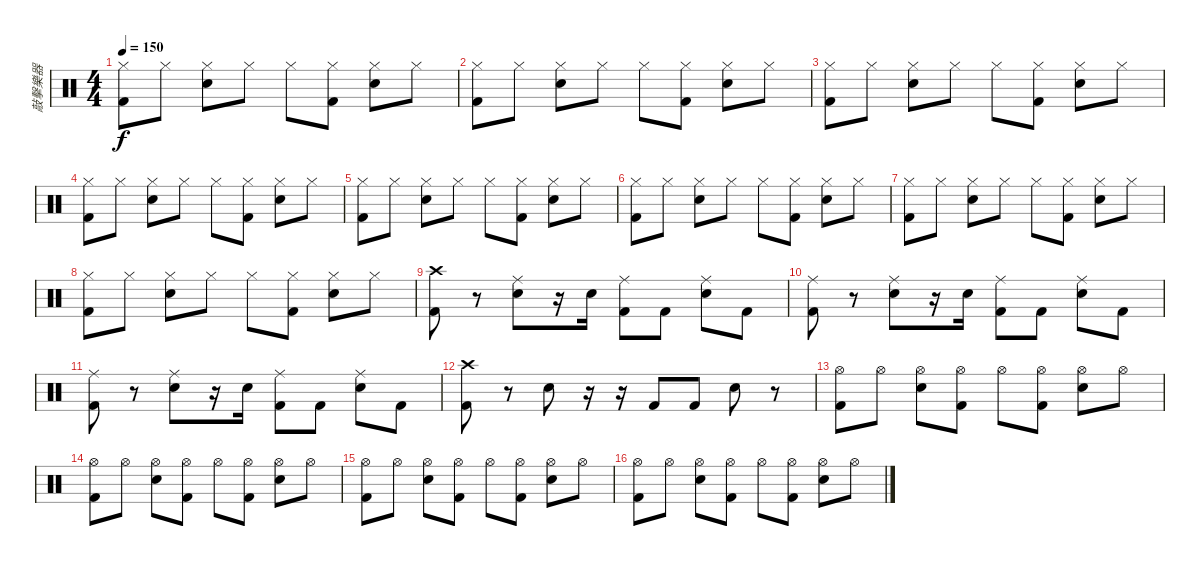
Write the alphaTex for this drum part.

\track ("敲擊樂器" "敲擊樂器") {instrument percussion}
\staff {score}
\articulation defaults
\ts (4 4)
\tempo 150
\clef neutral
\ks c
("Hi-Hat (closed)" "Kick (hit) 2").8{dy f} "Hi-Hat (closed)".8 ("Hi-Hat (closed)" "Electric Snare (hit)").8 "Hi-Hat (closed)".8 "Hi-Hat (closed)".8 ("Hi-Hat (closed)" "Kick (hit) 2").8 ("Hi-Hat (closed)" "Electric Snare (hit)").8 "Hi-Hat (closed)".8 |
("Hi-Hat (closed)" "Kick (hit) 2").8 "Hi-Hat (closed)".8 ("Hi-Hat (closed)" "Electric Snare (hit)").8 "Hi-Hat (closed)".8 "Hi-Hat (closed)".8 ("Hi-Hat (closed)" "Kick (hit) 2").8 ("Hi-Hat (closed)" "Electric Snare (hit)").8 "Hi-Hat (closed)".8 |
("Hi-Hat (closed)" "Kick (hit) 2").8 "Hi-Hat (closed)".8 ("Hi-Hat (closed)" "Electric Snare (hit)").8 "Hi-Hat (closed)".8 "Hi-Hat (closed)".8 ("Hi-Hat (closed)" "Kick (hit) 2").8 ("Hi-Hat (closed)" "Electric Snare (hit)").8 "Hi-Hat (closed)".8 |
("Hi-Hat (closed)" "Kick (hit) 2").8 "Hi-Hat (closed)".8 ("Hi-Hat (closed)" "Electric Snare (hit)").8 "Hi-Hat (closed)".8 "Hi-Hat (closed)".8 ("Hi-Hat (closed)" "Kick (hit) 2").8 ("Hi-Hat (closed)" "Electric Snare (hit)").8 "Hi-Hat (closed)".8 |
("Hi-Hat (closed)" "Kick (hit) 2").8 "Hi-Hat (closed)".8 ("Hi-Hat (closed)" "Electric Snare (hit)").8 "Hi-Hat (closed)".8 "Hi-Hat (closed)".8 ("Hi-Hat (closed)" "Kick (hit) 2").8 ("Hi-Hat (closed)" "Electric Snare (hit)").8 "Hi-Hat (closed)".8 |
("Hi-Hat (closed)" "Kick (hit) 2").8 "Hi-Hat (closed)".8 ("Hi-Hat (closed)" "Electric Snare (hit)").8 "Hi-Hat (closed)".8 "Hi-Hat (closed)".8 ("Hi-Hat (closed)" "Kick (hit) 2").8 ("Hi-Hat (closed)" "Electric Snare (hit)").8 "Hi-Hat (closed)".8 |
("Hi-Hat (closed)" "Kick (hit) 2").8 "Hi-Hat (closed)".8 ("Hi-Hat (closed)" "Electric Snare (hit)").8 "Hi-Hat (closed)".8 "Hi-Hat (closed)".8 ("Hi-Hat (closed)" "Kick (hit) 2").8 ("Hi-Hat (closed)" "Electric Snare (hit)").8 "Hi-Hat (closed)".8 |
("Hi-Hat (closed)" "Kick (hit) 2").8 "Hi-Hat (closed)".8 ("Hi-Hat (closed)" "Electric Snare (hit)").8 "Hi-Hat (closed)".8 "Hi-Hat (closed)".8 ("Hi-Hat (closed)" "Kick (hit) 2").8 ("Hi-Hat (closed)" "Electric Snare (hit)").8 "Hi-Hat (closed)".8 |
("Crash high (hit)" "Kick (hit) 2").8 r.8 ("Ride (middle)" "Electric Snare (hit)").8 r.16 "Electric Snare (hit)".16 ("Ride (middle)" "Kick (hit) 2").8 "Kick (hit) 2".8 ("Ride (middle)" "Electric Snare (hit)").8 "Kick (hit) 2".8 |
("Ride (middle)" "Kick (hit) 2").8 r.8 ("Ride (middle)" "Electric Snare (hit)").8 r.16 "Electric Snare (hit)".16 ("Ride (middle)" "Kick (hit) 2").8 "Kick (hit) 2".8 ("Ride (middle)" "Electric Snare (hit)").8 "Kick (hit) 2".8 |
("Ride (middle)" "Kick (hit) 2").8 r.8 ("Ride (middle)" "Electric Snare (hit)").8 r.16 "Electric Snare (hit)".16 ("Ride (middle)" "Kick (hit) 2").8 "Kick (hit) 2".8 ("Ride (middle)" "Electric Snare (hit)").8 "Kick (hit) 2".8 |
("Crash high (hit)" "Kick (hit) 2").8 r.8 "Electric Snare (hit)".8 r.16 r.16 "Kick (hit) 2".8 "Kick (hit) 2".8 "Electric Snare (hit)".8 r.8 |
("Hi-Hat (open)" "Kick (hit) 2").8 "Hi-Hat (open)".8 ("Hi-Hat (open)" "Electric Snare (hit)").8 ("Hi-Hat (open)" "Kick (hit) 2").8 "Hi-Hat (open)".8 ("Hi-Hat (open)" "Kick (hit) 2").8 ("Hi-Hat (open)" "Electric Snare (hit)").8 "Hi-Hat (open)".8 |
("Hi-Hat (open)" "Kick (hit) 2").8 "Hi-Hat (open)".8 ("Hi-Hat (open)" "Electric Snare (hit)").8 ("Hi-Hat (open)" "Kick (hit) 2").8 "Hi-Hat (open)".8 ("Hi-Hat (open)" "Kick (hit) 2").8 ("Hi-Hat (open)" "Electric Snare (hit)").8 "Hi-Hat (open)".8 |
("Hi-Hat (open)" "Kick (hit) 2").8 "Hi-Hat (open)".8 ("Hi-Hat (open)" "Electric Snare (hit)").8 ("Hi-Hat (open)" "Kick (hit) 2").8 "Hi-Hat (open)".8 ("Hi-Hat (open)" "Kick (hit) 2").8 ("Hi-Hat (open)" "Electric Snare (hit)").8 "Hi-Hat (open)".8 |
("Hi-Hat (open)" "Kick (hit) 2").8 "Hi-Hat (open)".8 ("Hi-Hat (open)" "Electric Snare (hit)").8 ("Hi-Hat (open)" "Kick (hit) 2").8 "Hi-Hat (open)".8 ("Hi-Hat (open)" "Kick (hit) 2").8 ("Hi-Hat (open)" "Electric Snare (hit)").8 "Hi-Hat (open)".8
